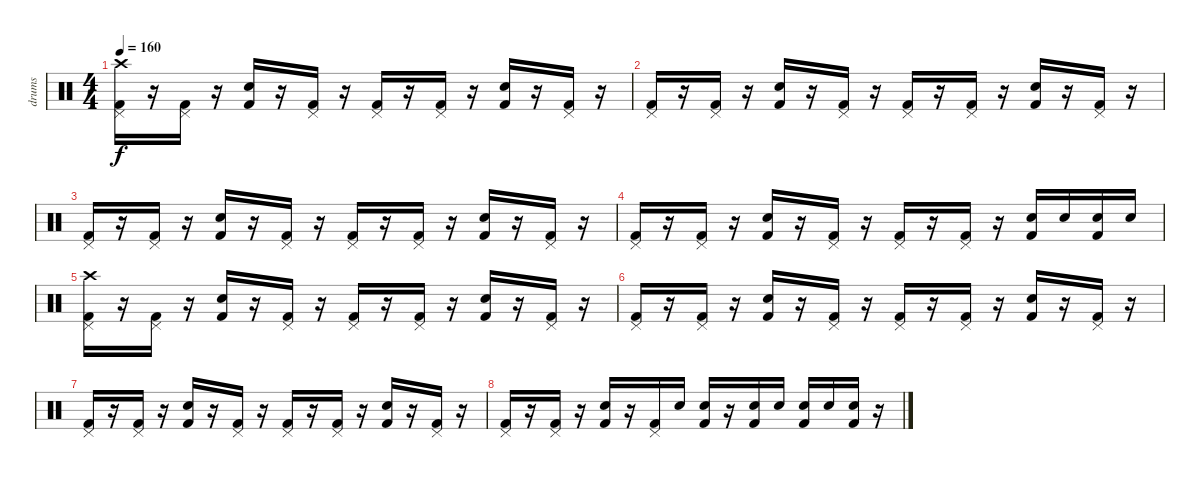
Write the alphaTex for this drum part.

\track ("drums" "drums") {instrument percussion}
\staff {score}
\articulation defaults
\ts (4 4)
\tempo 160
\clef neutral
\ks c
("Crash high (hit)" "Pedal Hi-Hat (hit)" "Kick (hit) 2").16{dy f} r.16 ("Pedal Hi-Hat (hit)" "Kick (hit) 2").16 r.16 ("Snare (hit) 2" "Kick (hit) 2").16 r.16 ("Pedal Hi-Hat (hit)" "Kick (hit) 2").16 r.16 ("Pedal Hi-Hat (hit)" "Kick (hit) 2").16 r.16 ("Pedal Hi-Hat (hit)" "Kick (hit) 2").16 r.16 ("Snare (hit) 2" "Kick (hit) 2").16 r.16 ("Pedal Hi-Hat (hit)" "Kick (hit) 2").16 r.16 |
("Pedal Hi-Hat (hit)" "Kick (hit) 2").16 r.16 ("Pedal Hi-Hat (hit)" "Kick (hit) 2").16 r.16 ("Snare (hit) 2" "Kick (hit) 2").16 r.16 ("Pedal Hi-Hat (hit)" "Kick (hit) 2").16 r.16 ("Pedal Hi-Hat (hit)" "Kick (hit) 2").16 r.16 ("Pedal Hi-Hat (hit)" "Kick (hit) 2").16 r.16 ("Snare (hit) 2" "Kick (hit) 2").16 r.16 ("Pedal Hi-Hat (hit)" "Kick (hit) 2").16 r.16 |
("Pedal Hi-Hat (hit)" "Kick (hit) 2").16 r.16 ("Pedal Hi-Hat (hit)" "Kick (hit) 2").16 r.16 ("Snare (hit) 2" "Kick (hit) 2").16 r.16 ("Pedal Hi-Hat (hit)" "Kick (hit) 2").16 r.16 ("Pedal Hi-Hat (hit)" "Kick (hit) 2").16 r.16 ("Pedal Hi-Hat (hit)" "Kick (hit) 2").16 r.16 ("Snare (hit) 2" "Kick (hit) 2").16 r.16 ("Pedal Hi-Hat (hit)" "Kick (hit) 2").16 r.16 |
("Pedal Hi-Hat (hit)" "Kick (hit) 2").16 r.16 ("Pedal Hi-Hat (hit)" "Kick (hit) 2").16 r.16 ("Snare (hit) 2" "Kick (hit) 2").16 r.16 ("Pedal Hi-Hat (hit)" "Kick (hit) 2").16 r.16 ("Pedal Hi-Hat (hit)" "Kick (hit) 2").16 r.16 ("Pedal Hi-Hat (hit)" "Kick (hit) 2").16 r.16 ("Snare (hit) 2" "Kick (hit) 2").16 "Snare (hit) 2".16 ("Snare (hit) 2" "Kick (hit) 2").16 "Snare (hit) 2".16 |
("Crash high (hit)" "Pedal Hi-Hat (hit)" "Kick (hit) 2").16 r.16 ("Pedal Hi-Hat (hit)" "Kick (hit) 2").16 r.16 ("Snare (hit) 2" "Kick (hit) 2").16 r.16 ("Pedal Hi-Hat (hit)" "Kick (hit) 2").16 r.16 ("Pedal Hi-Hat (hit)" "Kick (hit) 2").16 r.16 ("Pedal Hi-Hat (hit)" "Kick (hit) 2").16 r.16 ("Snare (hit) 2" "Kick (hit) 2").16 r.16 ("Pedal Hi-Hat (hit)" "Kick (hit) 2").16 r.16 |
("Pedal Hi-Hat (hit)" "Kick (hit) 2").16 r.16 ("Pedal Hi-Hat (hit)" "Kick (hit) 2").16 r.16 ("Snare (hit) 2" "Kick (hit) 2").16 r.16 ("Pedal Hi-Hat (hit)" "Kick (hit) 2").16 r.16 ("Pedal Hi-Hat (hit)" "Kick (hit) 2").16 r.16 ("Pedal Hi-Hat (hit)" "Kick (hit) 2").16 r.16 ("Snare (hit) 2" "Kick (hit) 2").16 r.16 ("Pedal Hi-Hat (hit)" "Kick (hit) 2").16 r.16 |
("Pedal Hi-Hat (hit)" "Kick (hit) 2").16 r.16 ("Pedal Hi-Hat (hit)" "Kick (hit) 2").16 r.16 ("Snare (hit) 2" "Kick (hit) 2").16 r.16 ("Pedal Hi-Hat (hit)" "Kick (hit) 2").16 r.16 ("Pedal Hi-Hat (hit)" "Kick (hit) 2").16 r.16 ("Pedal Hi-Hat (hit)" "Kick (hit) 2").16 r.16 ("Snare (hit) 2" "Kick (hit) 2").16 r.16 ("Pedal Hi-Hat (hit)" "Kick (hit) 2").16 r.16 |
("Pedal Hi-Hat (hit)" "Kick (hit) 2").16 r.16 ("Pedal Hi-Hat (hit)" "Kick (hit) 2").16 r.16 ("Snare (hit) 2" "Kick (hit) 2").16 r.16 ("Pedal Hi-Hat (hit)" "Kick (hit) 2").16 "Snare (hit) 2".16 ("Snare (hit) 2" "Kick (hit) 2").16 r.16 ("Snare (hit) 2" "Kick (hit) 2").16 "Snare (hit) 2".16 ("Snare (hit) 2" "Kick (hit) 2").16 "Snare (hit) 2".16 ("Snare (hit) 2" "Kick (hit) 2").16 r.16
